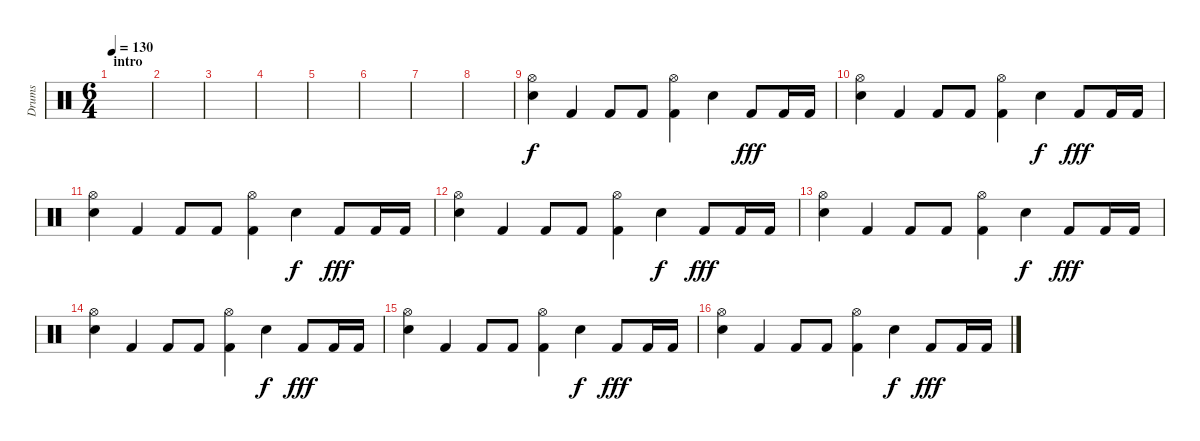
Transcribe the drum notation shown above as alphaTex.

\track ("Drums" "Drums") {instrument percussion}
\staff {score}
\articulation defaults
\ts (6 4)
\section ("" "intro")
\tempo 130
\clef neutral
\ks c
|
|
|
|
|
|
|
|
("Hi-Hat (open)" "Snare (hit) 2").4 "Kick (hit) 2".4 "Kick (hit) 2".8 "Kick (hit) 2".8 ("Hi-Hat (open)" "Kick (hit) 2").4 "Snare (hit) 2".4{dy f} "Kick (hit) 2".8{dy fff} "Kick (hit) 2".16 "Kick (hit) 2".16 |
("Hi-Hat (open)" "Snare (hit) 2").4 "Kick (hit) 2".4 "Kick (hit) 2".8 "Kick (hit) 2".8 ("Hi-Hat (open)" "Kick (hit) 2").4 "Snare (hit) 2".4{dy f} "Kick (hit) 2".8{dy fff} "Kick (hit) 2".16 "Kick (hit) 2".16 |
("Hi-Hat (open)" "Snare (hit) 2").4 "Kick (hit) 2".4 "Kick (hit) 2".8 "Kick (hit) 2".8 ("Hi-Hat (open)" "Kick (hit) 2").4 "Snare (hit) 2".4{dy f} "Kick (hit) 2".8{dy fff} "Kick (hit) 2".16 "Kick (hit) 2".16 |
("Hi-Hat (open)" "Snare (hit) 2").4 "Kick (hit) 2".4 "Kick (hit) 2".8 "Kick (hit) 2".8 ("Hi-Hat (open)" "Kick (hit) 2").4 "Snare (hit) 2".4{dy f} "Kick (hit) 2".8{dy fff} "Kick (hit) 2".16 "Kick (hit) 2".16 |
("Hi-Hat (open)" "Snare (hit) 2").4 "Kick (hit) 2".4 "Kick (hit) 2".8 "Kick (hit) 2".8 ("Hi-Hat (open)" "Kick (hit) 2").4 "Snare (hit) 2".4{dy f} "Kick (hit) 2".8{dy fff} "Kick (hit) 2".16 "Kick (hit) 2".16 |
("Hi-Hat (open)" "Snare (hit) 2").4 "Kick (hit) 2".4 "Kick (hit) 2".8 "Kick (hit) 2".8 ("Hi-Hat (open)" "Kick (hit) 2").4 "Snare (hit) 2".4{dy f} "Kick (hit) 2".8{dy fff} "Kick (hit) 2".16 "Kick (hit) 2".16 |
("Hi-Hat (open)" "Snare (hit) 2").4 "Kick (hit) 2".4 "Kick (hit) 2".8 "Kick (hit) 2".8 ("Hi-Hat (open)" "Kick (hit) 2").4 "Snare (hit) 2".4{dy f} "Kick (hit) 2".8{dy fff} "Kick (hit) 2".16 "Kick (hit) 2".16 |
("Hi-Hat (open)" "Snare (hit) 2").4 "Kick (hit) 2".4 "Kick (hit) 2".8 "Kick (hit) 2".8 ("Hi-Hat (open)" "Kick (hit) 2").4 "Snare (hit) 2".4{dy f} "Kick (hit) 2".8{dy fff} "Kick (hit) 2".16 "Kick (hit) 2".16
